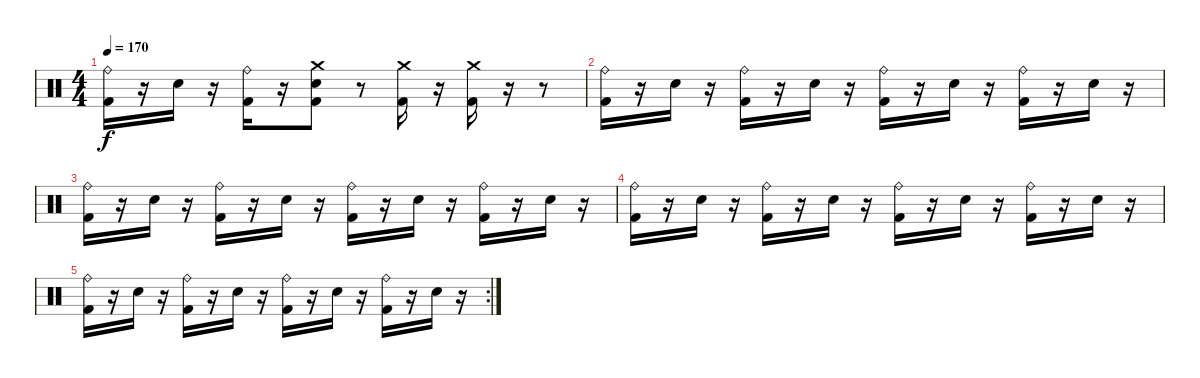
\track "" {instrument percussion}
\staff {score}
\articulation defaults
\ts (4 4)
\tempo 170
\clef neutral
\ks c
("Kick (hit) 2" "Ride (bell)").16{dy f} r.16 "Electric Snare (hit)".16 r.16 ("Kick (hit) 2" "Ride (bell)").16 r.16 ("Electric Snare (hit)" "Crash medium (hit)" "Kick (hit) 2").8 r.8 ("Kick (hit) 2" "Crash medium (hit)").16 r.16 ("Kick (hit) 2" "Crash medium (hit)").16 r.16 r.8 |
("Kick (hit) 2" "Ride (bell)").16 r.16 "Electric Snare (hit)".16 r.16 ("Kick (hit) 2" "Ride (bell)").16 r.16 "Electric Snare (hit)".16 r.16 ("Kick (hit) 2" "Ride (bell)").16 r.16 "Electric Snare (hit)".16 r.16 ("Kick (hit) 2" "Ride (bell)").16 r.16 "Electric Snare (hit)".16 r.16 |
("Kick (hit) 2" "Ride (bell)").16 r.16 "Electric Snare (hit)".16 r.16 ("Kick (hit) 2" "Ride (bell)").16 r.16 "Electric Snare (hit)".16 r.16 ("Kick (hit) 2" "Ride (bell)").16 r.16 "Electric Snare (hit)".16 r.16 ("Kick (hit) 2" "Ride (bell)").16 r.16 "Electric Snare (hit)".16 r.16 |
("Kick (hit) 2" "Ride (bell)").16 r.16 "Electric Snare (hit)".16 r.16 ("Kick (hit) 2" "Ride (bell)").16 r.16 "Electric Snare (hit)".16 r.16 ("Kick (hit) 2" "Ride (bell)").16 r.16 "Electric Snare (hit)".16 r.16 ("Kick (hit) 2" "Ride (bell)").16 r.16 "Electric Snare (hit)".16 r.16 |
\rc 2
("Kick (hit) 2" "Ride (bell)").16 r.16 "Electric Snare (hit)".16 r.16 ("Kick (hit) 2" "Ride (bell)").16 r.16 "Electric Snare (hit)".16 r.16 ("Kick (hit) 2" "Ride (bell)").16 r.16 "Electric Snare (hit)".16 r.16 ("Kick (hit) 2" "Ride (bell)").16 r.16 "Electric Snare (hit)".16 r.16
